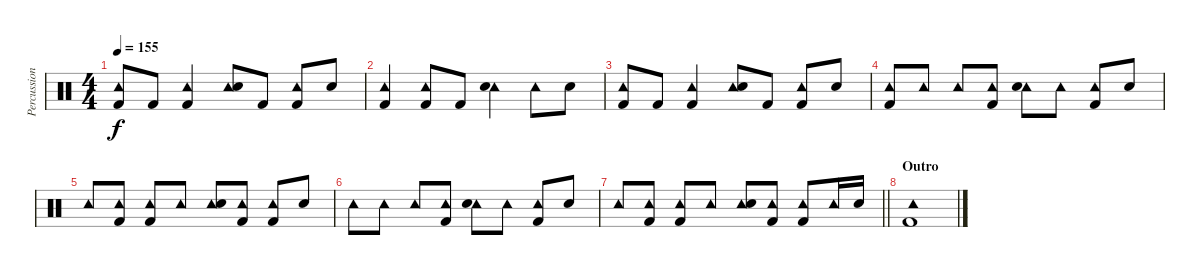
\track ("Percussion" "Percussion") {instrument percussion}
\staff {score}
\articulation defaults
\ts (4 4)
\tempo 155
\clef neutral
\ks c
("Tambourine (hit)" "Kick (hit) 2").8{dy f} "Kick (hit) 2".8 ("Tambourine (hit)" "Kick (hit) 2").4 ("Tambourine (hit)" "Electric Snare (hit)").8 "Kick (hit) 2".8 ("Tambourine (hit)" "Kick (hit) 2").8 "Electric Snare (hit)".8 |
("Tambourine (hit)" "Kick (hit) 2").4 ("Tambourine (hit)" "Kick (hit) 2").8 "Kick (hit) 2".8 ("Tambourine (hit)" "Electric Snare (hit)").4 "Tambourine (hit)".8 "Electric Snare (hit)".8 |
("Tambourine (hit)" "Kick (hit) 2").8 "Kick (hit) 2".8 ("Tambourine (hit)" "Kick (hit) 2").4 ("Tambourine (hit)" "Electric Snare (hit)").8 "Kick (hit) 2".8 ("Tambourine (hit)" "Kick (hit) 2").8 "Electric Snare (hit)".8 |
("Tambourine (hit)" "Kick (hit) 2").8 "Tambourine (hit)".8 "Tambourine (hit)".8 ("Tambourine (hit)" "Kick (hit) 2").8 ("Tambourine (hit)" "Electric Snare (hit)").8 "Tambourine (hit)".8 ("Tambourine (hit)" "Kick (hit) 2").8 "Electric Snare (hit)".8 |
"Tambourine (hit)".8 ("Tambourine (hit)" "Kick (hit) 2").8 ("Tambourine (hit)" "Kick (hit) 2").8 "Tambourine (hit)".8 ("Tambourine (hit)" "Electric Snare (hit)").8 ("Tambourine (hit)" "Kick (hit) 2").8 ("Tambourine (hit)" "Kick (hit) 2").8 "Electric Snare (hit)".8 |
"Tambourine (hit)".8 "Tambourine (hit)".8 "Tambourine (hit)".8 ("Tambourine (hit)" "Kick (hit) 2").8 ("Tambourine (hit)" "Electric Snare (hit)").8 "Tambourine (hit)".8 ("Tambourine (hit)" "Kick (hit) 2").8 "Electric Snare (hit)".8 |
\barLineRight lightlight "Tambourine (hit)".8
("Tambourine (hit)" "Kick (hit) 2").8 ("Tambourine (hit)" "Kick (hit) 2").8 "Tambourine (hit)".8 ("Tambourine (hit)" "Electric Snare (hit)").8 ("Tambourine (hit)" "Kick (hit) 2").8 ("Tambourine (hit)" "Kick (hit) 2").8 "Tambourine (hit)".16 "Electric Snare (hit)".16 |
\section ("" "Outro")
("Tambourine (hit)" "Kick (hit) 2").1
